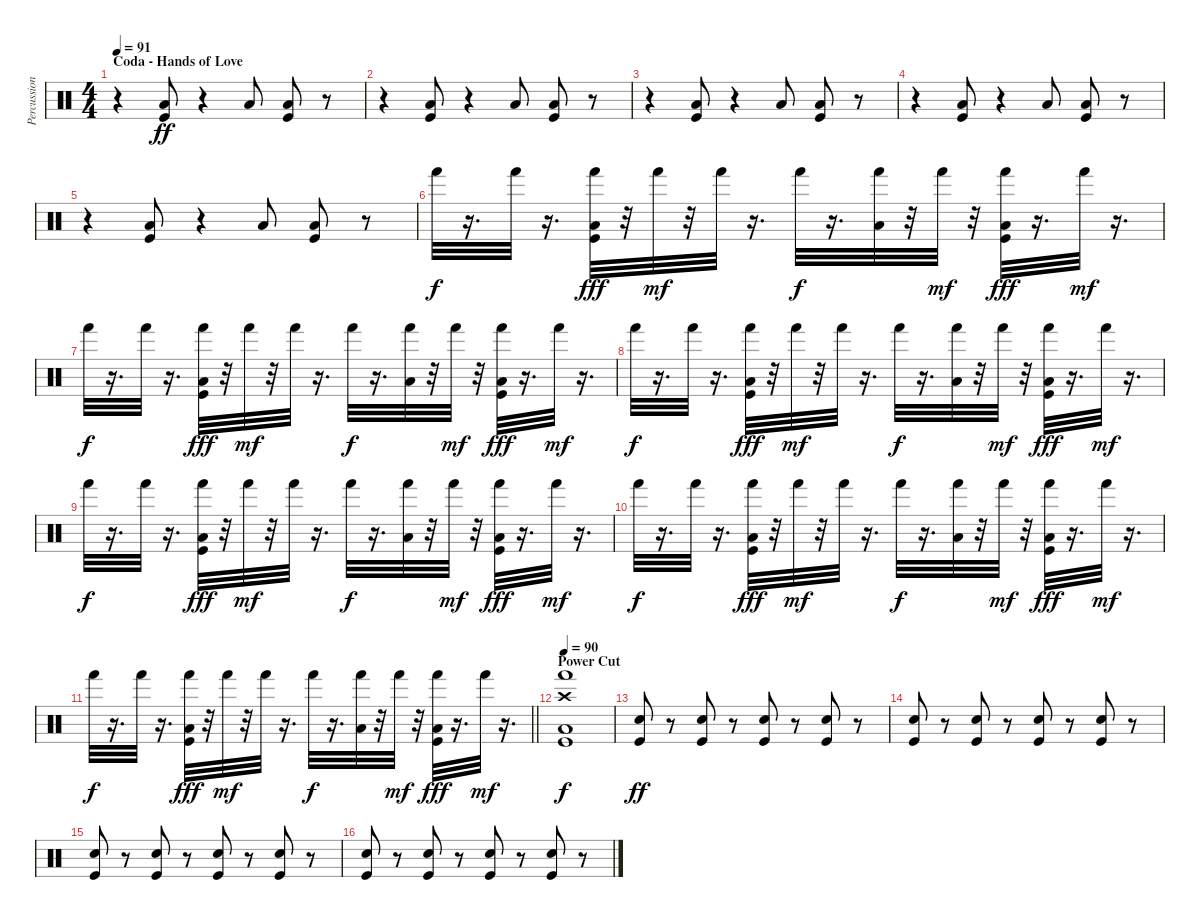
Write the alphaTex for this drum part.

\track ("Percussion" "Percussion") {instrument percussion}
\staff {score}
\articulation defaults
\ts (4 4)
\section ("" "Coda - Hands of Love")
\tempo 91
\clef neutral
\ks c
r.4{dy ff} ("Low Floor Tom (hit)" "Kick (hit)").8 r.4 "Low Tom (hit)".8 ("Low Floor Tom (hit)" "Kick (hit)").8 r.8 |
r.4 ("Low Floor Tom (hit)" "Kick (hit)").8 r.4 "Low Tom (hit)".8 ("Low Floor Tom (hit)" "Kick (hit)").8 r.8 |
r.4{volume 15} ("Low Floor Tom (hit)" "Kick (hit)").8 r.4 "Low Tom (hit)".8 ("Low Floor Tom (hit)" "Kick (hit)").8 r.8 |
r.4{volume 15} ("Low Floor Tom (hit)" "Kick (hit)").8 r.4 "Low Tom (hit)".8 ("Low Floor Tom (hit)" "Kick (hit)").8 r.8 |
r.4{volume 15} ("Low Floor Tom (hit)" "Kick (hit)").8 r.4 "Low Tom (hit)".8 ("Low Floor Tom (hit)" "Kick (hit)").8 r.8 |
"Hand (hit)".32{dy f volume 15} r.16{d} "Hand (hit)".32 r.16{d} ("Hand (hit)" "Low Floor Tom (hit)" "Kick (hit)").32{dy fff} r.32 "Hand (hit)".32{dy mf} r.32 "Hand (hit)".32 r.16{d} "Hand (hit)".32{dy f} r.16{d} ("Hand (hit)" "Low Tom (hit)").32 r.32 "Hand (hit)".32{dy mf} r.32 ("Hand (hit)" "Low Floor Tom (hit)" "Kick (hit)").32{dy fff} r.16{d} "Hand (hit)".32{dy mf} r.16{d} |
"Hand (hit)".32{dy f volume 15} r.16{d} "Hand (hit)".32 r.16{d} ("Hand (hit)" "Low Floor Tom (hit)" "Kick (hit)").32{dy fff} r.32 "Hand (hit)".32{dy mf} r.32 "Hand (hit)".32 r.16{d} "Hand (hit)".32{dy f} r.16{d} ("Hand (hit)" "Low Tom (hit)").32 r.32 "Hand (hit)".32{dy mf} r.32 ("Hand (hit)" "Low Floor Tom (hit)" "Kick (hit)").32{dy fff} r.16{d} "Hand (hit)".32{dy mf} r.16{d} |
"Hand (hit)".32{dy f volume 15} r.16{d} "Hand (hit)".32 r.16{d} ("Hand (hit)" "Low Floor Tom (hit)" "Kick (hit)").32{dy fff} r.32 "Hand (hit)".32{dy mf} r.32 "Hand (hit)".32 r.16{d} "Hand (hit)".32{dy f} r.16{d} ("Hand (hit)" "Low Tom (hit)").32 r.32 "Hand (hit)".32{dy mf} r.32 ("Hand (hit)" "Low Floor Tom (hit)" "Kick (hit)").32{dy fff} r.16{d} "Hand (hit)".32{dy mf} r.16{d} |
"Hand (hit)".32{dy f volume 15} r.16{d} "Hand (hit)".32 r.16{d} ("Hand (hit)" "Low Floor Tom (hit)" "Kick (hit)").32{dy fff} r.32 "Hand (hit)".32{dy mf} r.32 "Hand (hit)".32 r.16{d} "Hand (hit)".32{dy f} r.16{d} ("Hand (hit)" "Low Tom (hit)").32 r.32 "Hand (hit)".32{dy mf} r.32 ("Hand (hit)" "Low Floor Tom (hit)" "Kick (hit)").32{dy fff} r.16{d} "Hand (hit)".32{dy mf} r.16{d} |
"Hand (hit)".32{dy f volume 15} r.16{d} "Hand (hit)".32 r.16{d} ("Hand (hit)" "Low Floor Tom (hit)" "Kick (hit)").32{dy fff} r.32 "Hand (hit)".32{dy mf} r.32 "Hand (hit)".32 r.16{d} "Hand (hit)".32{dy f} r.16{d} ("Hand (hit)" "Low Tom (hit)").32 r.32 "Hand (hit)".32{dy mf} r.32 ("Hand (hit)" "Low Floor Tom (hit)" "Kick (hit)").32{dy fff} r.16{d} "Hand (hit)".32{dy mf} r.16{d} |
\barLineRight lightlight "Hand (hit)".32{dy f volume 15}
r.16{d} "Hand (hit)".32 r.16{d} ("Hand (hit)" "Low Floor Tom (hit)" "Kick (hit)").32{dy fff} r.32 "Hand (hit)".32{dy mf} r.32 "Hand (hit)".32 r.16{d} "Hand (hit)".32{dy f} r.16{d} ("Hand (hit)" "Low Tom (hit)").32 r.32 "Hand (hit)".32{dy mf} r.32 ("Hand (hit)" "Low Floor Tom (hit)" "Kick (hit)").32{dy fff} r.16{d} "Hand (hit)".32{dy mf} r.16{d} |
\section ("" "Power Cut")
\tempo 90
("Hand (hit)" "Low Floor Tom (hit)" "Crash high (hit)" "Kick (hit)").1{dy f volume 15} |
("Snare (hit) 2" "Kick (hit)").8{dy ff} r.8 ("Snare (hit) 2" "Kick (hit)").8 r.8 ("Snare (hit) 2" "Kick (hit)").8 r.8 ("Snare (hit) 2" "Kick (hit)").8 r.8 |
("Snare (hit) 2" "Kick (hit)").8 r.8 ("Snare (hit) 2" "Kick (hit)").8 r.8 ("Snare (hit) 2" "Kick (hit)").8 r.8 ("Snare (hit) 2" "Kick (hit)").8 r.8 |
("Snare (hit) 2" "Kick (hit)").8 r.8 ("Snare (hit) 2" "Kick (hit)").8 r.8 ("Snare (hit) 2" "Kick (hit)").8 r.8 ("Snare (hit) 2" "Kick (hit)").8 r.8 |
("Snare (hit) 2" "Kick (hit)").8 r.8 ("Snare (hit) 2" "Kick (hit)").8 r.8 ("Snare (hit) 2" "Kick (hit)").8 r.8 ("Snare (hit) 2" "Kick (hit)").8 r.8
